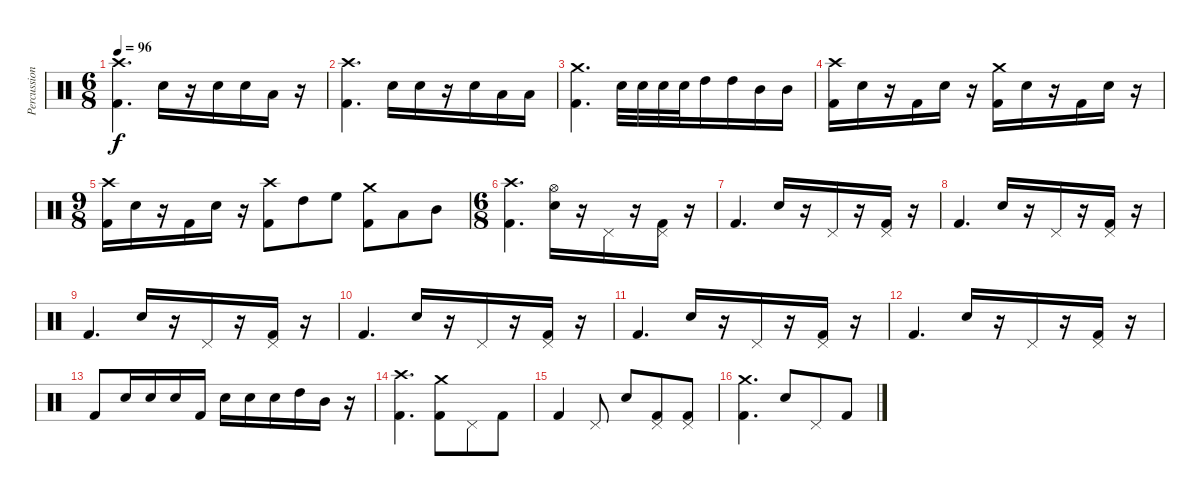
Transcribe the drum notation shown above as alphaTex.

\track ("Percussion" "Percussion") {instrument percussion}
\staff {score}
\articulation defaults
\ts (6 8)
\tempo 96
\clef neutral
\ks c
("Kick (hit) 2" "Crash high (hit)").4{d dy f} "Snare (hit) 2".16 r.16 "Snare (hit) 2".16 "Snare (hit) 2".16 "Low Tom (hit)".16 r.16 |
("Kick (hit) 2" "Crash high (hit)").4{d} "Snare (hit) 2".16 "Snare (hit) 2".16 r.16 "Snare (hit) 2".16 "Low Tom (hit)".16 "Low Tom (hit)".16 |
("Kick (hit) 2" "Crash medium (hit)").4{d} "Snare (hit) 2".32 "Snare (hit) 2".32 "Snare (hit) 2".32 "Snare (hit) 2".32 "High Tom (hit)".16 "High Tom (hit)".16 "Mid Tom (hit)".16 "Mid Tom (hit)".16 |
("Kick (hit) 2" "Crash high (hit)").16 "Snare (hit) 2".16 r.16 "Kick (hit) 2".16 "Snare (hit) 2".16 r.16 ("Kick (hit) 2" "Crash medium (hit)").16 "Snare (hit) 2".16 r.16 "Kick (hit) 2".16 "Snare (hit) 2".16 r.16 |
\ts (9 8)
("Kick (hit) 2" "Crash high (hit)").16 "Snare (hit) 2".16 r.16 "Kick (hit) 2".16 "Snare (hit) 2".16 r.16 ("Kick (hit) 2" "Crash high (hit)").8 "High Tom (hit)".8 "High Floor Tom (hit)".8 ("Kick (hit) 2" "Crash medium (hit)").8 "Low Tom (hit)".8 "Mid Tom (hit)".8 |
\ts (6 8)
("Kick (hit) 2" "Crash high (hit)").4{d} ("Snare (hit) 2" "Hi-Hat (open)").16 r.16 "Pedal Hi-Hat (hit)".16 r.16 ("Kick (hit) 2" "Pedal Hi-Hat (hit)").16 r.16 |
"Kick (hit) 2".4{d} "Snare (hit) 2".16 r.16 "Pedal Hi-Hat (hit)".16 r.16 ("Kick (hit) 2" "Pedal Hi-Hat (hit)").16 r.16 |
"Kick (hit) 2".4{d} "Snare (hit) 2".16 r.16 "Pedal Hi-Hat (hit)".16 r.16 ("Kick (hit) 2" "Pedal Hi-Hat (hit)").16 r.16 |
"Kick (hit) 2".4{d} "Snare (hit) 2".16 r.16 "Pedal Hi-Hat (hit)".16 r.16 ("Kick (hit) 2" "Pedal Hi-Hat (hit)").16 r.16 |
"Kick (hit) 2".4{d} "Snare (hit) 2".16 r.16 "Pedal Hi-Hat (hit)".16 r.16 ("Kick (hit) 2" "Pedal Hi-Hat (hit)").16 r.16 |
"Kick (hit) 2".4{d} "Snare (hit) 2".16 r.16 "Pedal Hi-Hat (hit)".16 r.16 ("Kick (hit) 2" "Pedal Hi-Hat (hit)").16 r.16 |
"Kick (hit) 2".4{d} "Snare (hit) 2".16 r.16 "Pedal Hi-Hat (hit)".16 r.16 ("Kick (hit) 2" "Pedal Hi-Hat (hit)").16 r.16 |
"Kick (hit) 2".8 "Snare (hit) 2".16 "Snare (hit) 2".16 "Snare (hit) 2".16 "Kick (hit) 2".16 "Snare (hit) 2".16 "Snare (hit) 2".16 "Snare (hit) 2".16 "High Tom (hit)".16 "Mid Tom (hit)".16 r.16 |
("Kick (hit) 2" "Crash high (hit)").4{d} ("Kick (hit) 2" "Crash medium (hit)").8 "Pedal Hi-Hat (hit)".8 "Kick (hit) 2".8 |
"Kick (hit) 2".4 "Pedal Hi-Hat (hit)".8 "Snare (hit) 2".8 ("Kick (hit) 2" "Pedal Hi-Hat (hit)").8 ("Kick (hit) 2" "Pedal Hi-Hat (hit)").8 |
("Kick (hit) 2" "Crash medium (hit)").4{d} "Snare (hit) 2".8 "Pedal Hi-Hat (hit)".8 "Kick (hit) 2".8
